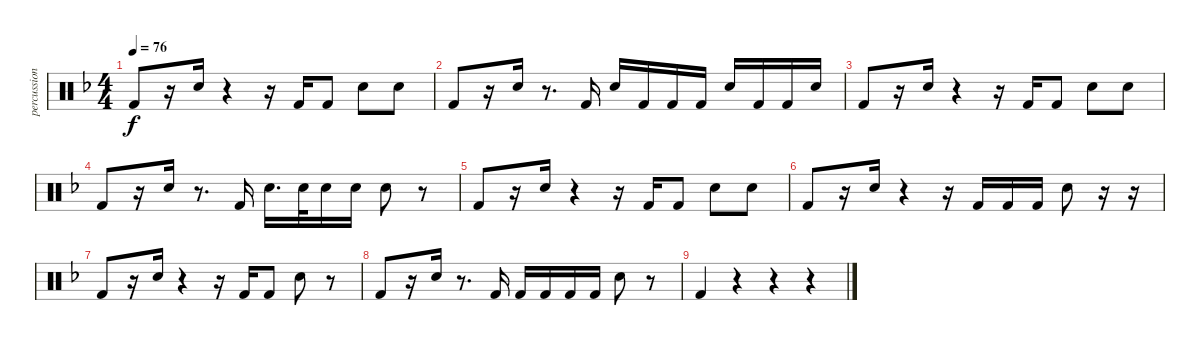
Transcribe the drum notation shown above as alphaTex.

\track ("percussion" "percussion") {instrument percussion}
\staff {score}
\articulation defaults
\ts (4 4)
\tempo 76
\clef neutral
\ks f "Kick (hit) 2".8{dy f}
r.16 "Electric Snare (hit)".16 r.4 r.16 "Kick (hit) 2".16 "Kick (hit) 2".8 "Electric Snare (hit)".8 "Electric Snare (hit)".8 |
"Kick (hit) 2".8 r.16 "Electric Snare (hit)".16 r.8{d} "Kick (hit) 2".16 "Electric Snare (hit)".16 "Kick (hit) 2".16 "Kick (hit) 2".16 "Kick (hit) 2".16 "Electric Snare (hit)".16 "Kick (hit) 2".16 "Kick (hit) 2".16 "Electric Snare (hit)".16 |
"Kick (hit) 2".8 r.16 "Electric Snare (hit)".16 r.4 r.16 "Kick (hit) 2".16 "Kick (hit) 2".8 "Electric Snare (hit)".8 "Electric Snare (hit)".8 |
"Kick (hit) 2".8 r.16 "Electric Snare (hit)".16 r.8{d} "Kick (hit) 2".16 "Electric Snare (hit)".16{d} "Electric Snare (hit)".32 "Electric Snare (hit)".16 "Electric Snare (hit)".16 "Electric Snare (hit)".8 r.8 |
"Kick (hit) 2".8 r.16 "Electric Snare (hit)".16 r.4 r.16 "Kick (hit) 2".16 "Kick (hit) 2".8 "Electric Snare (hit)".8 "Electric Snare (hit)".8 |
"Kick (hit) 2".8 r.16 "Electric Snare (hit)".16 r.4 r.16 "Kick (hit) 2".16 "Kick (hit) 2".16 "Kick (hit) 2".16 "Electric Snare (hit)".8 r.16 r.16 |
"Kick (hit) 2".8 r.16 "Electric Snare (hit)".16 r.4 r.16 "Kick (hit) 2".16 "Kick (hit) 2".8 "Electric Snare (hit)".8 r.8 |
"Kick (hit) 2".8 r.16 "Electric Snare (hit)".16 r.8{d} "Kick (hit) 2".16 "Kick (hit) 2".16 "Kick (hit) 2".16 "Kick (hit) 2".16 "Kick (hit) 2".16 "Electric Snare (hit)".8 r.8 |
"Kick (hit) 2".4 r.4 r.4 r.4
